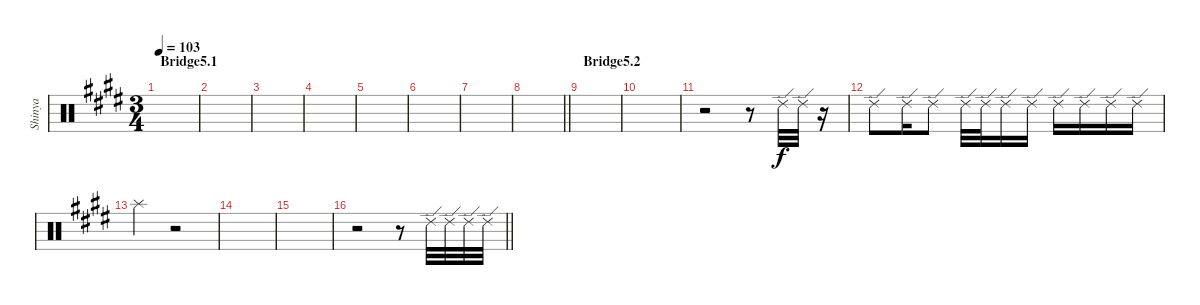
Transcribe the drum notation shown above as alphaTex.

\track ("Shinya" "Shinya") {instrument percussion}
\staff {score}
\articulation defaults
\ts (3 4)
\section ("" "Bridge5.1")
\tempo 103
\clef neutral
\ks c#minor
|
|
|
|
|
|
|
\barLineRight lightlight
|
\section ("" "Bridge5.2")
|
|
r.2 r.8 "Ride (edge) 2".32 "Ride (edge) 2".32 r.16 |
"Ride (edge) 2".8 "Ride (edge) 2".16 "Ride (edge) 2".8 "Ride (edge) 2".32 "Ride (edge) 2".32 "Ride (edge) 2".16 "Ride (edge) 2".16 "Ride (edge) 2".16 "Ride (edge) 2".16 "Ride (edge) 2".16 "Ride (edge) 2".16 |
"Splash (hit)".4 r.2 |
|
|
\barLineRight lightlight
r.2 r.8 "Ride (edge) 2".32 "Ride (edge) 2".32 "Ride (edge) 2".32 "Ride (edge) 2".32
